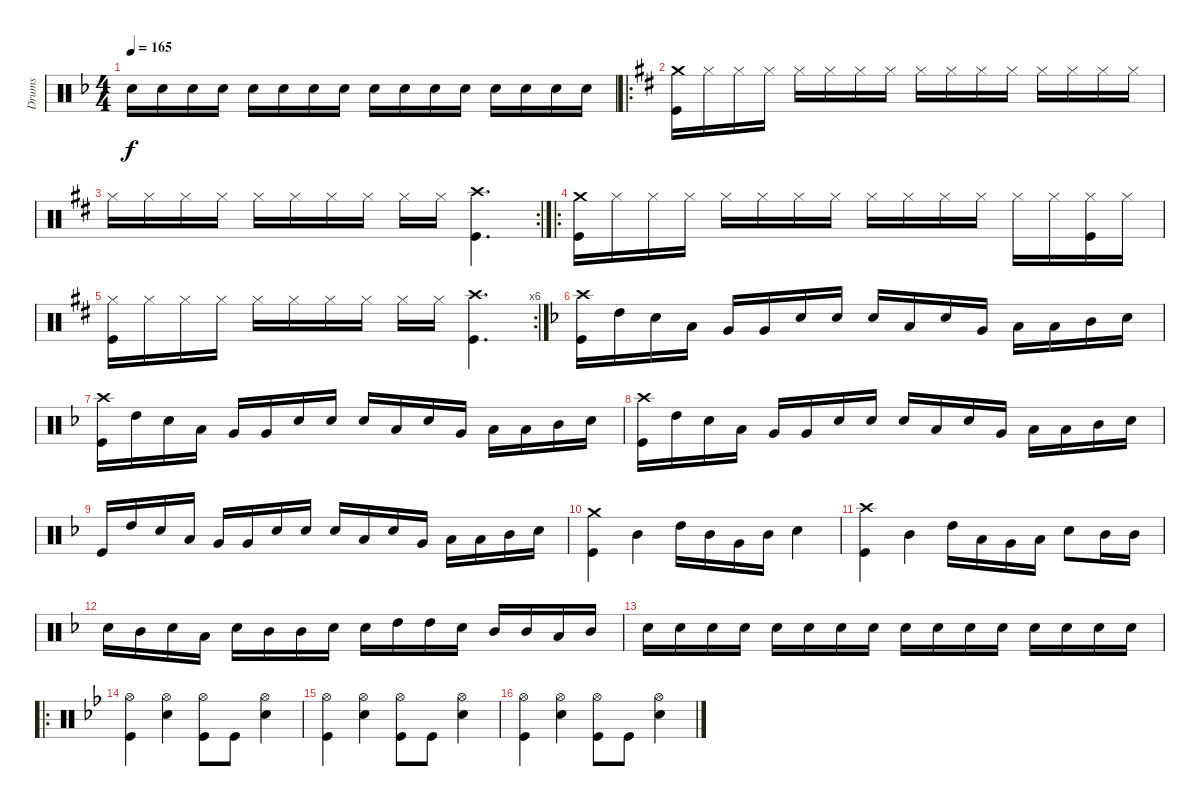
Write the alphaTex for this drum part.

\track ("Drums" "Drums") {instrument percussion}
\staff {score}
\articulation defaults
\ts (4 4)
\tempo 165
\clef neutral
\ks f "Snare (hit) 2".16{dy f} "Snare (hit) 2".16 "Snare (hit) 2".16 "Snare (hit) 2".16 "Snare (hit) 2".16 "Snare (hit) 2".16 "Snare (hit) 2".16 "Snare (hit) 2".16 "Snare (hit) 2".16 "Snare (hit) 2".16 "Snare (hit) 2".16 "Snare (hit) 2".16 "Snare (hit) 2".16 "Snare (hit) 2".16 "Snare (hit) 2".16 "Snare (hit) 2".16
|
\ro
\ks d
("Crash medium (hit)" "Kick (hit)").16 "Hi-Hat (closed)".16 "Hi-Hat (closed)".16 "Hi-Hat (closed)".16 "Hi-Hat (closed)".16 "Hi-Hat (closed)".16 "Hi-Hat (closed)".16 "Hi-Hat (closed)".16 "Hi-Hat (closed)".16 "Hi-Hat (closed)".16 "Hi-Hat (closed)".16 "Hi-Hat (closed)".16 "Hi-Hat (closed)".16 "Hi-Hat (closed)".16 "Hi-Hat (closed)".16 "Hi-Hat (closed)".16 |
\rc 2 "Hi-Hat (closed)".16 "Hi-Hat (closed)".16 "Hi-Hat (closed)".16 "Hi-Hat (closed)".16 "Hi-Hat (closed)".16 "Hi-Hat (closed)".16 "Hi-Hat (closed)".16 "Hi-Hat (closed)".16 "Hi-Hat (closed)".16 "Hi-Hat (closed)".16
("Crash high (hit)" "Kick (hit)").4{d} |
\ro
("Crash medium (hit)" "Kick (hit)").16 "Hi-Hat (closed)".16 "Hi-Hat (closed)".16 "Hi-Hat (closed)".16 "Hi-Hat (closed)".16 "Hi-Hat (closed)".16 "Hi-Hat (closed)".16 "Hi-Hat (closed)".16 "Hi-Hat (closed)".16 "Hi-Hat (closed)".16 "Hi-Hat (closed)".16 "Hi-Hat (closed)".16 "Hi-Hat (closed)".16 "Hi-Hat (closed)".16 ("Hi-Hat (closed)" "Kick (hit)").16 "Hi-Hat (closed)".16 |
\rc 6
("Hi-Hat (closed)" "Kick (hit)").16 "Hi-Hat (closed)".16 "Hi-Hat (closed)".16 "Hi-Hat (closed)".16 "Hi-Hat (closed)".16 "Hi-Hat (closed)".16 "Hi-Hat (closed)".16 "Hi-Hat (closed)".16 "Hi-Hat (closed)".16 "Hi-Hat (closed)".16 ("Crash high (hit)" "Kick (hit)").4{d} |
\ks f
("Crash high (hit)" "Kick (hit)").16 "High Tom (hit)".16 "Snare (hit) 2".16 "Low Tom (hit)".16 "Very Low Tom (hit)".16 "Very Low Tom (hit)".16 "Snare (hit) 2".16 "Snare (hit) 2".16 "Snare (hit) 2".16 "Low Floor Tom (hit)".16 "Snare (hit) 2".16 "Very Low Tom (hit)".16 "Low Tom (hit)".16 "Low Tom (hit)".16 "Mid Tom (hit)".16 "Snare (hit) 2".16 |
("Crash high (hit)" "Kick (hit)").16 "High Tom (hit)".16 "Snare (hit) 2".16 "Low Tom (hit)".16 "Very Low Tom (hit)".16 "Very Low Tom (hit)".16 "Snare (hit) 2".16 "Snare (hit) 2".16 "Snare (hit) 2".16 "Low Floor Tom (hit)".16 "Snare (hit) 2".16 "Very Low Tom (hit)".16 "Low Tom (hit)".16 "Low Tom (hit)".16 "Mid Tom (hit)".16 "Snare (hit) 2".16 |
("Crash high (hit)" "Kick (hit)").16 "High Tom (hit)".16 "Snare (hit) 2".16 "Low Tom (hit)".16 "Very Low Tom (hit)".16 "Very Low Tom (hit)".16 "Snare (hit) 2".16 "Snare (hit) 2".16 "Snare (hit) 2".16 "Low Floor Tom (hit)".16 "Snare (hit) 2".16 "Very Low Tom (hit)".16 "Low Tom (hit)".16 "Low Tom (hit)".16 "Mid Tom (hit)".16 "Snare (hit) 2".16 |
"Kick (hit)".16 "High Tom (hit)".16 "Snare (hit) 2".16 "Low Tom (hit)".16 "Very Low Tom (hit)".16 "Very Low Tom (hit)".16 "Snare (hit) 2".16 "Snare (hit) 2".16 "Snare (hit) 2".16 "Low Floor Tom (hit)".16 "Snare (hit) 2".16 "Very Low Tom (hit)".16 "Low Tom (hit)".16 "Low Tom (hit)".16 "Mid Tom (hit)".16 "Snare (hit) 2".16 |
("Crash medium (hit)" "Kick (hit)").4 "Mid Tom (hit)".4 "High Tom (hit)".16 "Mid Tom (hit)".16 "Very Low Tom (hit)".16 "Mid Tom (hit)".16 "Snare (hit) 2".4 |
("Crash high (hit)" "Kick (hit)").4 "Mid Tom (hit)".4 "High Tom (hit)".16 "Low Tom (hit)".16 "Very Low Tom (hit)".16 "Low Tom (hit)".16 "Snare (hit) 2".8 "Mid Tom (hit)".16 "Mid Tom (hit)".16 |
"Snare (hit) 2".16 "Mid Tom (hit)".16 "Snare (hit) 2".16 "Low Tom (hit)".16 "Snare (hit) 2".16 "Mid Tom (hit)".16 "Mid Tom (hit)".16 "Snare (hit) 2".16 "Snare (hit) 2".16 "High Tom (hit)".16 "High Tom (hit)".16 "Snare (hit) 2".16 "Mid Tom (hit)".16 "Mid Tom (hit)".16 "Low Tom (hit)".16 "Mid Tom (hit)".16 |
"Snare (hit) 2".16 "Snare (hit) 2".16 "Snare (hit) 2".16 "Snare (hit) 2".16 "Snare (hit) 2".16 "Snare (hit) 2".16 "Snare (hit) 2".16 "Snare (hit) 2".16 "Snare (hit) 2".16 "Snare (hit) 2".16 "Snare (hit) 2".16 "Snare (hit) 2".16 "Snare (hit) 2".16 "Snare (hit) 2".16 "Snare (hit) 2".16 "Snare (hit) 2".16 |
\ro
\ks bb
("Hi-Hat (open)" "Kick (hit)").4 ("Hi-Hat (open)" "Snare (hit) 2").4 ("Hi-Hat (open)" "Kick (hit)").8 "Kick (hit)".8 ("Hi-Hat (open)" "Snare (hit) 2").4 |
("Hi-Hat (open)" "Kick (hit)").4 ("Hi-Hat (open)" "Snare (hit) 2").4 ("Hi-Hat (open)" "Kick (hit)").8 "Kick (hit)".8 ("Hi-Hat (open)" "Snare (hit) 2").4 |
("Hi-Hat (open)" "Kick (hit)").4 ("Hi-Hat (open)" "Snare (hit) 2").4 ("Hi-Hat (open)" "Kick (hit)").8 "Kick (hit)".8 ("Hi-Hat (open)" "Snare (hit) 2").4
